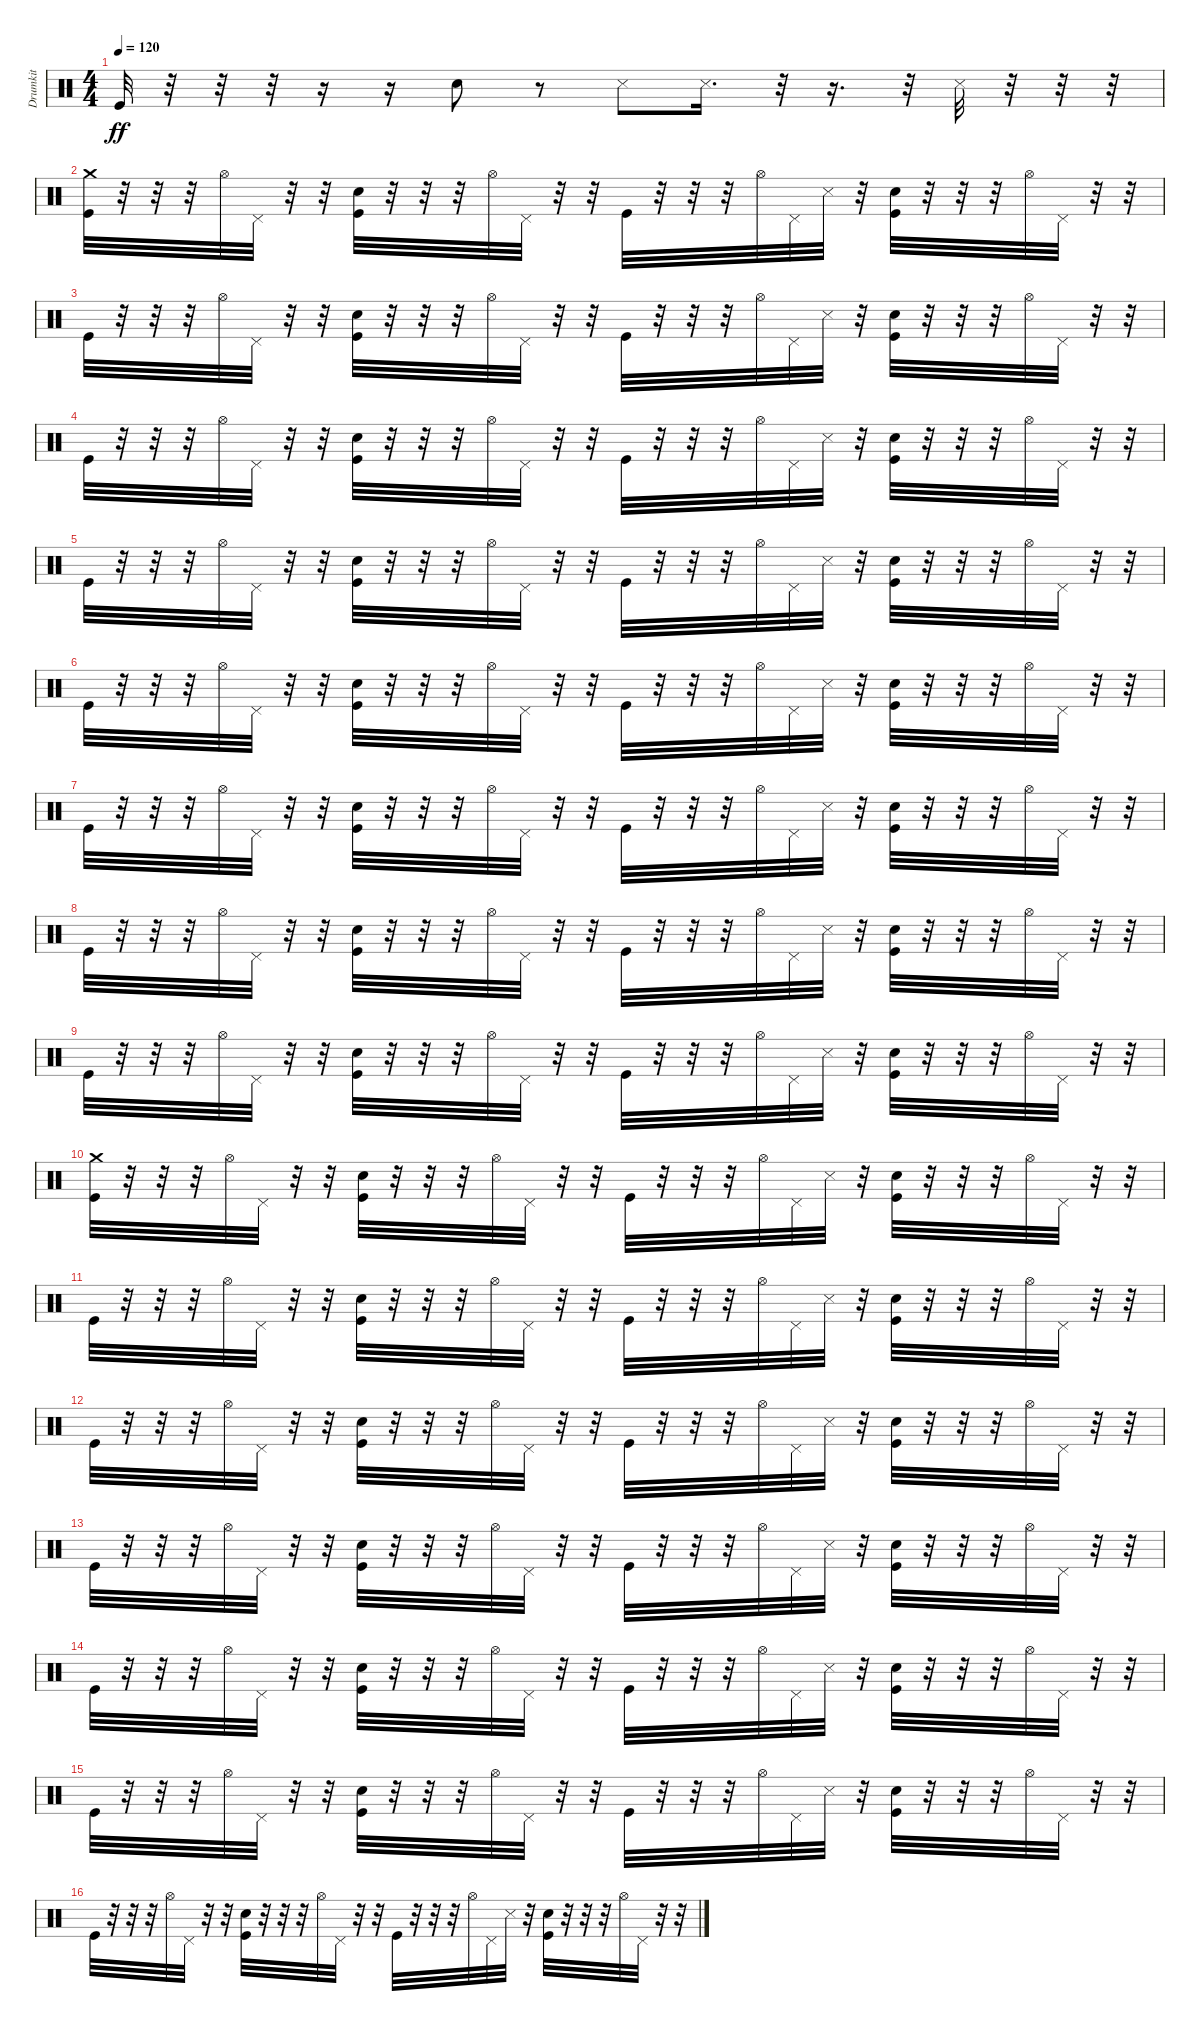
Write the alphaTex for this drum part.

\track ("Drumkit" "Drumkit") {instrument percussion}
\staff {score}
\articulation defaults
\ts (4 4)
\tempo 120
\clef neutral
\ks c "Kick (hit)".32{dy ff}
r.32 r.32 r.32 r.16 r.16 "Snare (hit) 2".8 r.8 "Snare (side stick) 3".8 "Snare (side stick) 3".16{d} r.32 r.16{d} r.32 "Snare (side stick) 3".32 r.32 r.32 r.32 |
("Crash medium (hit)" "Kick (hit)").32 r.32 r.32 r.32 "Hi-Hat (open)".32 "Pedal Hi-Hat (hit)".32 r.32 r.32 ("Snare (hit) 2" "Kick (hit)").32 r.32 r.32 r.32 "Hi-Hat (open)".32 "Pedal Hi-Hat (hit)".32 r.32 r.32 "Kick (hit)".32 r.32 r.32 r.32 "Hi-Hat (open)".32 "Pedal Hi-Hat (hit)".32 "Snare (side stick) 3".32 r.32 ("Snare (hit) 2" "Kick (hit)").32 r.32 r.32 r.32 "Hi-Hat (open)".32 "Pedal Hi-Hat (hit)".32 r.32 r.32 |
"Kick (hit)".32 r.32 r.32 r.32 "Hi-Hat (open)".32 "Pedal Hi-Hat (hit)".32 r.32 r.32 ("Snare (hit) 2" "Kick (hit)").32 r.32 r.32 r.32 "Hi-Hat (open)".32 "Pedal Hi-Hat (hit)".32 r.32 r.32 "Kick (hit)".32 r.32 r.32 r.32 "Hi-Hat (open)".32 "Pedal Hi-Hat (hit)".32 "Snare (side stick) 3".32 r.32 ("Snare (hit) 2" "Kick (hit)").32 r.32 r.32 r.32 "Hi-Hat (open)".32 "Pedal Hi-Hat (hit)".32 r.32 r.32 |
"Kick (hit)".32 r.32 r.32 r.32 "Hi-Hat (open)".32 "Pedal Hi-Hat (hit)".32 r.32 r.32 ("Snare (hit) 2" "Kick (hit)").32 r.32 r.32 r.32 "Hi-Hat (open)".32 "Pedal Hi-Hat (hit)".32 r.32 r.32 "Kick (hit)".32 r.32 r.32 r.32 "Hi-Hat (open)".32 "Pedal Hi-Hat (hit)".32 "Snare (side stick) 3".32 r.32 ("Snare (hit) 2" "Kick (hit)").32 r.32 r.32 r.32 "Hi-Hat (open)".32 "Pedal Hi-Hat (hit)".32 r.32 r.32 |
"Kick (hit)".32 r.32 r.32 r.32 "Hi-Hat (open)".32 "Pedal Hi-Hat (hit)".32 r.32 r.32 ("Snare (hit) 2" "Kick (hit)").32 r.32 r.32 r.32 "Hi-Hat (open)".32 "Pedal Hi-Hat (hit)".32 r.32 r.32 "Kick (hit)".32 r.32 r.32 r.32 "Hi-Hat (open)".32 "Pedal Hi-Hat (hit)".32 "Snare (side stick) 3".32 r.32 ("Kick (hit)" "Snare (hit) 2").32 r.32 r.32 r.32 "Hi-Hat (open)".32 "Pedal Hi-Hat (hit)".32 r.32 r.32 |
"Kick (hit)".32 r.32 r.32 r.32 "Hi-Hat (open)".32 "Pedal Hi-Hat (hit)".32 r.32 r.32 ("Kick (hit)" "Snare (hit) 2").32 r.32 r.32 r.32 "Hi-Hat (open)".32 "Pedal Hi-Hat (hit)".32 r.32 r.32 "Kick (hit)".32 r.32 r.32 r.32 "Hi-Hat (open)".32 "Pedal Hi-Hat (hit)".32 "Snare (side stick) 3".32 r.32 ("Snare (hit) 2" "Kick (hit)").32 r.32 r.32 r.32 "Hi-Hat (open)".32 "Pedal Hi-Hat (hit)".32 r.32 r.32 |
"Kick (hit)".32 r.32 r.32 r.32 "Hi-Hat (open)".32 "Pedal Hi-Hat (hit)".32 r.32 r.32 ("Snare (hit) 2" "Kick (hit)").32 r.32 r.32 r.32 "Hi-Hat (open)".32 "Pedal Hi-Hat (hit)".32 r.32 r.32 "Kick (hit)".32 r.32 r.32 r.32 "Hi-Hat (open)".32 "Pedal Hi-Hat (hit)".32 "Snare (side stick) 3".32 r.32 ("Kick (hit)" "Snare (hit) 2").32 r.32 r.32 r.32 "Hi-Hat (open)".32 "Pedal Hi-Hat (hit)".32 r.32 r.32 |
"Kick (hit)".32 r.32 r.32 r.32 "Hi-Hat (open)".32 "Pedal Hi-Hat (hit)".32 r.32 r.32 ("Kick (hit)" "Snare (hit) 2").32 r.32 r.32 r.32 "Hi-Hat (open)".32 "Pedal Hi-Hat (hit)".32 r.32 r.32 "Kick (hit)".32 r.32 r.32 r.32 "Hi-Hat (open)".32 "Pedal Hi-Hat (hit)".32 "Snare (side stick) 3".32 r.32 ("Snare (hit) 2" "Kick (hit)").32 r.32 r.32 r.32 "Hi-Hat (open)".32 "Pedal Hi-Hat (hit)".32 r.32 r.32 |
"Kick (hit)".32 r.32 r.32 r.32 "Hi-Hat (open)".32 "Pedal Hi-Hat (hit)".32 r.32 r.32 ("Kick (hit)" "Snare (hit) 2").32 r.32 r.32 r.32 "Hi-Hat (open)".32 "Pedal Hi-Hat (hit)".32 r.32 r.32 "Kick (hit)".32 r.32 r.32 r.32 "Hi-Hat (open)".32 "Pedal Hi-Hat (hit)".32 "Snare (side stick) 3".32 r.32 ("Kick (hit)" "Snare (hit) 2").32 r.32 r.32 r.32 "Hi-Hat (open)".32 "Pedal Hi-Hat (hit)".32 r.32 r.32 |
("Crash medium (hit)" "Kick (hit)").32 r.32 r.32 r.32 "Hi-Hat (open)".32 "Pedal Hi-Hat (hit)".32 r.32 r.32 ("Snare (hit) 2" "Kick (hit)").32 r.32 r.32 r.32 "Hi-Hat (open)".32 "Pedal Hi-Hat (hit)".32 r.32 r.32 "Kick (hit)".32 r.32 r.32 r.32 "Hi-Hat (open)".32 "Pedal Hi-Hat (hit)".32 "Snare (side stick) 3".32 r.32 ("Kick (hit)" "Snare (hit) 2").32 r.32 r.32 r.32 "Hi-Hat (open)".32 "Pedal Hi-Hat (hit)".32 r.32 r.32 |
"Kick (hit)".32 r.32 r.32 r.32 "Hi-Hat (open)".32 "Pedal Hi-Hat (hit)".32 r.32 r.32 ("Snare (hit) 2" "Kick (hit)").32 r.32 r.32 r.32 "Hi-Hat (open)".32 "Pedal Hi-Hat (hit)".32 r.32 r.32 "Kick (hit)".32 r.32 r.32 r.32 "Hi-Hat (open)".32 "Pedal Hi-Hat (hit)".32 "Snare (side stick) 3".32 r.32 ("Snare (hit) 2" "Kick (hit)").32 r.32 r.32 r.32 "Hi-Hat (open)".32 "Pedal Hi-Hat (hit)".32 r.32 r.32 |
"Kick (hit)".32 r.32 r.32 r.32 "Hi-Hat (open)".32 "Pedal Hi-Hat (hit)".32 r.32 r.32 ("Snare (hit) 2" "Kick (hit)").32 r.32 r.32 r.32 "Hi-Hat (open)".32 "Pedal Hi-Hat (hit)".32 r.32 r.32 "Kick (hit)".32 r.32 r.32 r.32 "Hi-Hat (open)".32 "Pedal Hi-Hat (hit)".32 "Snare (side stick) 3".32 r.32 ("Kick (hit)" "Snare (hit) 2").32 r.32 r.32 r.32 "Hi-Hat (open)".32 "Pedal Hi-Hat (hit)".32 r.32 r.32 |
"Kick (hit)".32 r.32 r.32 r.32 "Hi-Hat (open)".32 "Pedal Hi-Hat (hit)".32 r.32 r.32 ("Kick (hit)" "Snare (hit) 2").32 r.32 r.32 r.32 "Hi-Hat (open)".32 "Pedal Hi-Hat (hit)".32 r.32 r.32 "Kick (hit)".32 r.32 r.32 r.32 "Hi-Hat (open)".32 "Pedal Hi-Hat (hit)".32 "Snare (side stick) 3".32 r.32 ("Kick (hit)" "Snare (hit) 2").32 r.32 r.32 r.32 "Hi-Hat (open)".32 "Pedal Hi-Hat (hit)".32 r.32 r.32 |
"Kick (hit)".32 r.32 r.32 r.32 "Hi-Hat (open)".32 "Pedal Hi-Hat (hit)".32 r.32 r.32 ("Snare (hit) 2" "Kick (hit)").32 r.32 r.32 r.32 "Hi-Hat (open)".32 "Pedal Hi-Hat (hit)".32 r.32 r.32 "Kick (hit)".32 r.32 r.32 r.32 "Hi-Hat (open)".32 "Pedal Hi-Hat (hit)".32 "Snare (side stick) 3".32 r.32 ("Kick (hit)" "Snare (hit) 2").32 r.32 r.32 r.32 "Hi-Hat (open)".32 "Pedal Hi-Hat (hit)".32 r.32 r.32 |
"Kick (hit)".32 r.32 r.32 r.32 "Hi-Hat (open)".32 "Pedal Hi-Hat (hit)".32 r.32 r.32 ("Snare (hit) 2" "Kick (hit)").32 r.32 r.32 r.32 "Hi-Hat (open)".32 "Pedal Hi-Hat (hit)".32 r.32 r.32 "Kick (hit)".32 r.32 r.32 r.32 "Hi-Hat (open)".32 "Pedal Hi-Hat (hit)".32 "Snare (side stick) 3".32 r.32 ("Snare (hit) 2" "Kick (hit)").32 r.32 r.32 r.32 "Hi-Hat (open)".32 "Pedal Hi-Hat (hit)".32 r.32 r.32 |
"Kick (hit)".32 r.32 r.32 r.32 "Hi-Hat (open)".32 "Pedal Hi-Hat (hit)".32 r.32 r.32 ("Snare (hit) 2" "Kick (hit)").32 r.32 r.32 r.32 "Hi-Hat (open)".32 "Pedal Hi-Hat (hit)".32 r.32 r.32 "Kick (hit)".32 r.32 r.32 r.32 "Hi-Hat (open)".32 "Pedal Hi-Hat (hit)".32 "Snare (side stick) 3".32 r.32 ("Kick (hit)" "Snare (hit) 2").32 r.32 r.32 r.32 "Hi-Hat (open)".32 "Pedal Hi-Hat (hit)".32 r.32 r.32
